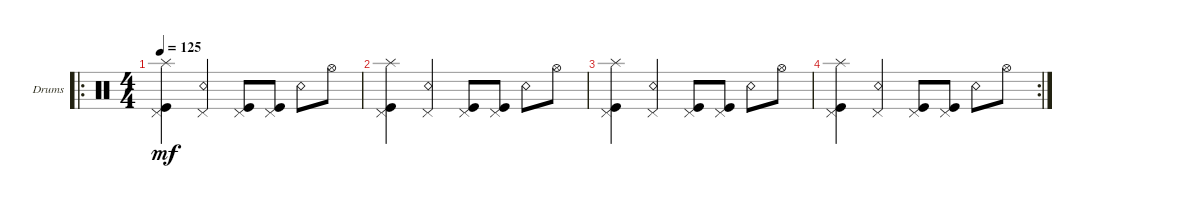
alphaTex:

\defaultSystemsLayout 4
\bracketExtendMode groupsimilarinstruments
\firstSystemTrackNameOrientation horizontal
\otherSystemsTrackNameOrientation horizontal
\track ("Drumkit" "Drums") {instrument percussion}
\staff {score}
\articulation defaults
\ro
\ts (4 4)
\tempo 125
\clef neutral
\ks c
("Splash (hit)" "Pedal Hi-Hat (hit)" "Kick (hit)").4{dy mf} ("Snare (rim shot)" "Pedal Hi-Hat (hit)").4 ("Kick (hit)" "Pedal Hi-Hat (hit)").8 ("Kick (hit)" "Pedal Hi-Hat (hit)").8 "Snare (rim shot)".8 "Hi-Hat (open)".8 |
("Splash (hit)" "Pedal Hi-Hat (hit)" "Kick (hit)").4 ("Snare (rim shot)" "Pedal Hi-Hat (hit)").4 ("Kick (hit)" "Pedal Hi-Hat (hit)").8 ("Kick (hit)" "Pedal Hi-Hat (hit)").8 "Snare (rim shot)".8 "Hi-Hat (open)".8 |
("Splash (hit)" "Pedal Hi-Hat (hit)" "Kick (hit)").4 ("Snare (rim shot)" "Pedal Hi-Hat (hit)").4 ("Kick (hit)" "Pedal Hi-Hat (hit)").8 ("Kick (hit)" "Pedal Hi-Hat (hit)").8 "Snare (rim shot)".8 "Hi-Hat (open)".8 |
\rc 2
("Splash (hit)" "Pedal Hi-Hat (hit)" "Kick (hit)").4 ("Snare (rim shot)" "Pedal Hi-Hat (hit)").4 ("Kick (hit)" "Pedal Hi-Hat (hit)").8 ("Kick (hit)" "Pedal Hi-Hat (hit)").8 "Snare (rim shot)".8 "Hi-Hat (open)".8
